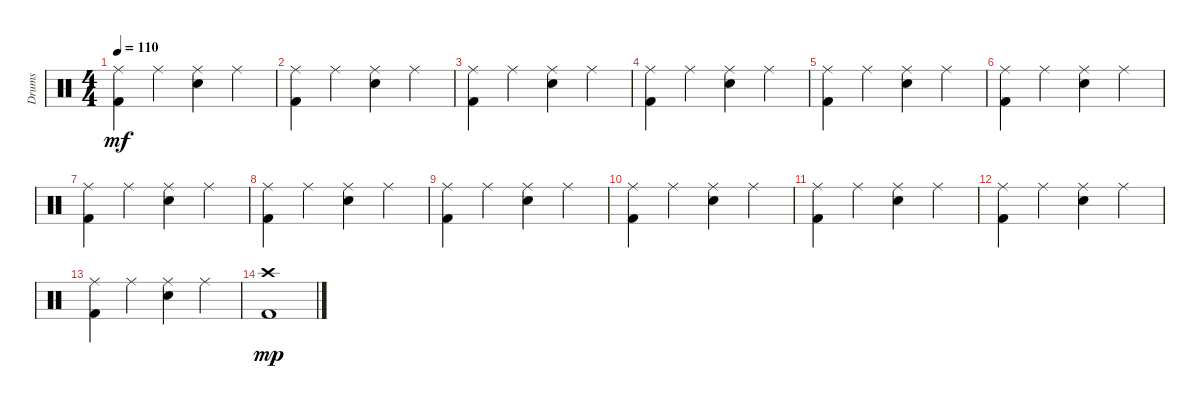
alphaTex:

\track ("Drums" "Drums") {instrument percussion}
\staff {score}
\articulation defaults
\ts (4 4)
\tempo 110
\clef neutral
\ks c
("Ride (middle)" "Kick (hit) 2").4{dy mf} "Ride (middle)".4 ("Ride (middle)" "Snare (hit) 2").4 "Ride (middle)".4 |
("Ride (middle)" "Kick (hit) 2").4 "Ride (middle)".4 ("Ride (middle)" "Snare (hit) 2").4 "Ride (middle)".4 |
("Ride (middle)" "Kick (hit) 2").4 "Ride (middle)".4 ("Ride (middle)" "Snare (hit) 2").4 "Ride (middle)".4 |
("Ride (middle)" "Kick (hit) 2").4 "Ride (middle)".4 ("Ride (middle)" "Snare (hit) 2").4 "Ride (middle)".4 |
("Ride (middle)" "Kick (hit) 2").4 "Ride (middle)".4 ("Ride (middle)" "Snare (hit) 2").4 "Ride (middle)".4 |
("Ride (middle)" "Kick (hit) 2").4 "Ride (middle)".4 ("Ride (middle)" "Snare (hit) 2").4 "Ride (middle)".4 |
("Ride (middle)" "Kick (hit) 2").4 "Ride (middle)".4 ("Ride (middle)" "Snare (hit) 2").4 "Ride (middle)".4 |
("Ride (middle)" "Kick (hit) 2").4 "Ride (middle)".4 ("Ride (middle)" "Snare (hit) 2").4 "Ride (middle)".4 |
("Ride (middle)" "Kick (hit) 2").4 "Ride (middle)".4 ("Ride (middle)" "Snare (hit) 2").4 "Ride (middle)".4 |
("Ride (middle)" "Kick (hit) 2").4 "Ride (middle)".4 ("Ride (middle)" "Snare (hit) 2").4 "Ride (middle)".4 |
("Ride (middle)" "Kick (hit) 2").4 "Ride (middle)".4 ("Ride (middle)" "Snare (hit) 2").4 "Ride (middle)".4 |
("Ride (middle)" "Kick (hit) 2").4 "Ride (middle)".4 ("Ride (middle)" "Snare (hit) 2").4 "Ride (middle)".4 |
("Ride (middle)" "Kick (hit) 2").4 "Ride (middle)".4 ("Ride (middle)" "Snare (hit) 2").4 "Ride (middle)".4 |
("Crash high (hit)" "Kick (hit) 2").1{dy mp}
